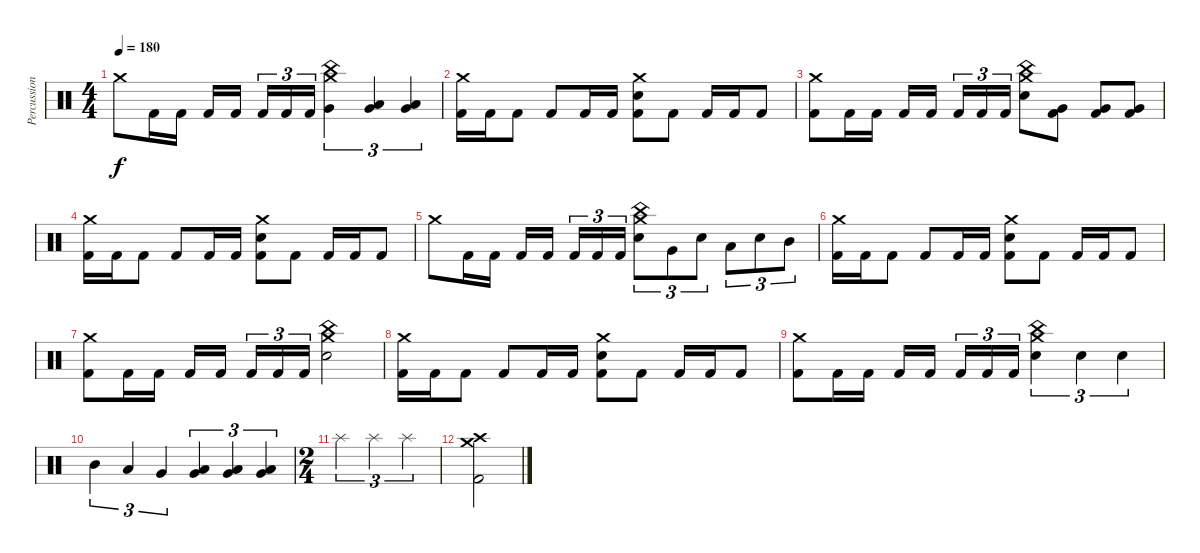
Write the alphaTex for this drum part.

\track ("Percussion" "Percussion") {instrument percussion}
\staff {score}
\articulation defaults
\ts (4 4)
\tempo 180
\clef neutral
\ks c "Crash medium (hit)".8{dy f} "Kick (hit) 2".16 "Kick (hit) 2".16 "Kick (hit) 2".16 "Kick (hit) 2".16{beam splitsecondary} "Kick (hit) 2".16{tu (3 2)} "Kick (hit) 2".16{tu (3 2)} "Kick (hit) 2".16{tu (3 2)}
("Crash medium (hit)" "China (hit)" "Very Low Tom (hit)").4{tu (3 2)} ("Very Low Tom (hit)" "Low Floor Tom (hit)").4{tu (3 2)} ("Very Low Tom (hit)" "Low Floor Tom (hit)").4{tu (3 2)} |
("Crash medium (hit)" "Kick (hit) 2").16 "Kick (hit) 2".16 "Kick (hit) 2".8 "Kick (hit) 2".8 "Kick (hit) 2".16 "Kick (hit) 2".16 ("Crash medium (hit)" "Electric Snare (hit)" "Kick (hit) 2").8 "Kick (hit) 2".8 "Kick (hit) 2".16 "Kick (hit) 2".16 "Kick (hit) 2".8 |
("Crash medium (hit)" "Kick (hit) 2").8 "Kick (hit) 2".16 "Kick (hit) 2".16 "Kick (hit) 2".16 "Kick (hit) 2".16{beam splitsecondary} "Kick (hit) 2".16{tu (3 2)} "Kick (hit) 2".16{tu (3 2)} "Kick (hit) 2".16{tu (3 2)} ("Crash medium (hit)" "China (hit)" "Electric Snare (hit)").8 ("Very Low Tom (hit)" "Kick (hit) 2").8 ("Very Low Tom (hit)" "Kick (hit) 2").8 ("Very Low Tom (hit)" "Kick (hit) 2").8 |
("Crash medium (hit)" "Kick (hit) 2").16 "Kick (hit) 2".16 "Kick (hit) 2".8 "Kick (hit) 2".8 "Kick (hit) 2".16 "Kick (hit) 2".16 ("Crash medium (hit)" "Electric Snare (hit)" "Kick (hit) 2").8 "Kick (hit) 2".8 "Kick (hit) 2".16 "Kick (hit) 2".16 "Kick (hit) 2".8 |
"Crash medium (hit)".8 "Kick (hit) 2".16 "Kick (hit) 2".16 "Kick (hit) 2".16 "Kick (hit) 2".16{beam splitsecondary} "Kick (hit) 2".16{tu (3 2)} "Kick (hit) 2".16{tu (3 2)} "Kick (hit) 2".16{tu (3 2)} ("Crash medium (hit)" "China (hit)" "Electric Snare (hit)").8{tu (3 2)} "Very Low Tom (hit)".8{tu (3 2)} "Electric Snare (hit)".8{tu (3 2)} "Low Tom (hit)".8{tu (3 2)} "Electric Snare (hit)".8{tu (3 2)} "Mid Tom (hit)".8{tu (3 2)} |
("Crash medium (hit)" "Kick (hit) 2").16 "Kick (hit) 2".16 "Kick (hit) 2".8 "Kick (hit) 2".8 "Kick (hit) 2".16 "Kick (hit) 2".16 ("Crash medium (hit)" "Electric Snare (hit)" "Kick (hit) 2").8 "Kick (hit) 2".8 "Kick (hit) 2".16 "Kick (hit) 2".16 "Kick (hit) 2".8 |
("Crash medium (hit)" "Kick (hit) 2").8 "Kick (hit) 2".16 "Kick (hit) 2".16 "Kick (hit) 2".16 "Kick (hit) 2".16{beam splitsecondary} "Kick (hit) 2".16{tu (3 2)} "Kick (hit) 2".16{tu (3 2)} "Kick (hit) 2".16{tu (3 2)} ("Crash medium (hit)" "China (hit)" "Electric Snare (hit)").2 |
("Crash medium (hit)" "Kick (hit) 2").16 "Kick (hit) 2".16 "Kick (hit) 2".8 "Kick (hit) 2".8 "Kick (hit) 2".16 "Kick (hit) 2".16 ("Crash medium (hit)" "Electric Snare (hit)" "Kick (hit) 2").8 "Kick (hit) 2".8 "Kick (hit) 2".16 "Kick (hit) 2".16 "Kick (hit) 2".8 |
("Crash medium (hit)" "Kick (hit) 2").8 "Kick (hit) 2".16 "Kick (hit) 2".16 "Kick (hit) 2".16 "Kick (hit) 2".16{beam splitsecondary} "Kick (hit) 2".16{tu (3 2)} "Kick (hit) 2".16{tu (3 2)} "Kick (hit) 2".16{tu (3 2)} ("Crash medium (hit)" "China (hit)" "Electric Snare (hit)").4{tu (3 2)} "Electric Snare (hit)".4{tu (3 2)} "Electric Snare (hit)".4{tu (3 2)} |
"Mid Tom (hit)".4{tu (3 2)} "Low Tom (hit)".4{tu (3 2)} "Very Low Tom (hit)".4{tu (3 2)} ("Low Floor Tom (hit)" "Very Low Tom (hit)").4{tu (3 2)} ("Low Floor Tom (hit)" "Very Low Tom (hit)").4{tu (3 2)} ("Low Floor Tom (hit)" "Very Low Tom (hit)").4{tu (3 2)} |
\ts (2 4)
"Splash (hit)".4{tu (3 2)} "Splash (hit)".4{tu (3 2)} "Splash (hit)".4{tu (3 2)} |
("Crash medium (hit)" "Crash high (hit)" "Kick (hit) 2").2
